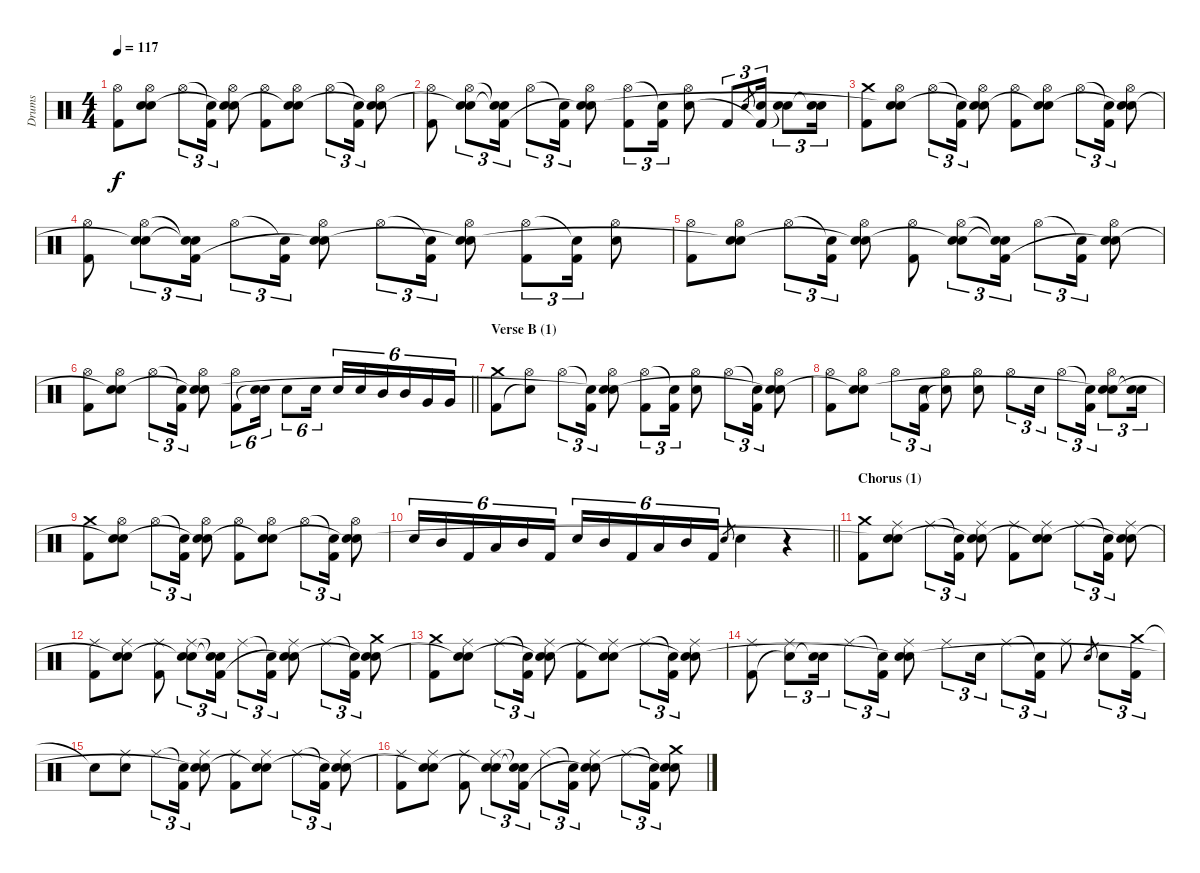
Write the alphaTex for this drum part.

\track ("Drums" "Drums") {instrument percussion}
\staff {score}
\articulation defaults
\ts (4 4)
\tempo 117
\clef neutral
\ks aminor
("Hi-Hat (open)" "Kick (hit) 2").8{dy f} ("Hi-Hat (open)" "Electric Snare (hit)" "Snare (hit)"{t}).8 "Hi-Hat (open)".8{tu (3 2)} ("Snare (hit)"{t} "Kick (hit) 2").16{tu (3 2)} ("Hi-Hat (open)" "Electric Snare (hit)" "Snare (hit)"{t}).8 ("Hi-Hat (open)" "Kick (hit) 2").8 ("Hi-Hat (open)" "Electric Snare (hit)" "Snare (hit)"{t}).8 "Hi-Hat (open)".8{tu (3 2)} ("Snare (hit)"{t} "Kick (hit) 2").16{tu (3 2)} ("Hi-Hat (open)" "Electric Snare (hit)" "Snare (hit)"{t}).8 |
("Hi-Hat (open)" "Kick (hit) 2").8 ("Hi-Hat (open)" "Electric Snare (hit)" "Snare (hit)"{t}).8{tu (3 2)} ("Snare (hit)"{t} "Snare (hit)"{t} "Kick (hit) 2").16{tu (3 2)} "Hi-Hat (open)".8{tu (3 2)} ("Snare (hit)"{t} "Kick (hit) 2").16{tu (3 2)} ("Hi-Hat (open)" "Electric Snare (hit)" "Snare (hit)"{t}).8 ("Hi-Hat (open)" "Kick (hit) 2").8{tu (3 2)} ("Snare (hit)"{t} "Kick (hit) 2").16{tu (3 2)} ("Hi-Hat (open)" "Electric Snare (hit)").8 "Kick (hit) 2".8{tu (3 2)} "Electric Snare (hit)".8{gr} ("Electric Snare (hit)" "Kick (hit) 2"{t}).16{tu (3 2)} ("Electric Snare (hit)" "Snare (hit)"{t}).8{tu (3 2)} ("Electric Snare (hit)" "Snare (hit)"{t}).16{tu (3 2)} |
("Crash medium (hit)" "Kick (hit) 2").8 ("Hi-Hat (open)" "Electric Snare (hit)" "Snare (hit)"{t}).8 "Hi-Hat (open)".8{tu (3 2)} ("Snare (hit)"{t} "Kick (hit) 2").16{tu (3 2)} ("Hi-Hat (open)" "Electric Snare (hit)" "Snare (hit)"{t}).8 ("Hi-Hat (open)" "Kick (hit) 2").8 ("Hi-Hat (open)" "Electric Snare (hit)" "Snare (hit)"{t}).8 "Hi-Hat (open)".8{tu (3 2)} ("Snare (hit)"{t} "Kick (hit) 2").16{tu (3 2)} ("Hi-Hat (open)" "Electric Snare (hit)" "Snare (hit)"{t}).8 |
("Hi-Hat (open)" "Kick (hit) 2").8 ("Hi-Hat (open)" "Electric Snare (hit)" "Snare (hit)"{t}).8{tu (3 2)} ("Snare (hit)"{t} "Snare (hit)"{t} "Kick (hit) 2").16{tu (3 2)} "Hi-Hat (open)".8{tu (3 2)} ("Snare (hit)"{t} "Kick (hit) 2").16{tu (3 2)} ("Hi-Hat (open)" "Electric Snare (hit)" "Snare (hit)"{t}).8 "Hi-Hat (open)".8{tu (3 2)} ("Snare (hit)"{t} "Kick (hit) 2").16{tu (3 2)} ("Hi-Hat (open)" "Electric Snare (hit)" "Snare (hit)"{t}).8 ("Hi-Hat (open)" "Kick (hit) 2").8{tu (3 2)} ("Snare (hit)"{t} "Kick (hit) 2").16{tu (3 2)} ("Hi-Hat (open)" "Electric Snare (hit)").8 |
("Hi-Hat (open)" "Kick (hit) 2").8 ("Hi-Hat (open)" "Electric Snare (hit)" "Snare (hit)"{t}).8 "Hi-Hat (open)".8{tu (3 2)} ("Snare (hit)"{t} "Kick (hit) 2").16{tu (3 2)} ("Hi-Hat (open)" "Electric Snare (hit)" "Snare (hit)"{t}).8 ("Hi-Hat (open)" "Kick (hit) 2").8 ("Hi-Hat (open)" "Electric Snare (hit)" "Snare (hit)"{t}).8{tu (3 2)} ("Snare (hit)"{t} "Snare (hit)"{t} "Kick (hit) 2").16{tu (3 2)} "Hi-Hat (open)".8{tu (3 2)} ("Snare (hit)"{t} "Kick (hit) 2").16{tu (3 2)} ("Hi-Hat (open)" "Electric Snare (hit)" "Snare (hit)"{t}).8 |
\barLineRight lightlight
("Hi-Hat (open)" "Kick (hit) 2").8 ("Hi-Hat (open)" "Electric Snare (hit)" "Snare (hit)"{t}).8 "Hi-Hat (open)".8{tu (3 2)} ("Snare (hit)"{t} "Kick (hit) 2").16{tu (3 2)} ("Hi-Hat (open)" "Electric Snare (hit)" "Snare (hit)"{t}).8 ("Hi-Hat (open)" "Kick (hit) 2").8{tu (6 4)} ("Electric Snare (hit)" "Snare (hit)"{t}).16{tu (6 4)} "Electric Snare (hit)".8{tu (6 4)} "Electric Snare (hit)".16{tu (6 4)} "Electric Snare (hit)".16{tu (6 4)} "Electric Snare (hit)".16{tu (6 4)} "Mid Tom (hit)".16{tu (6 4)} "Mid Tom (hit)".16{tu (6 4)} "Very Low Tom (hit)".16{tu (6 4)} "Very Low Tom (hit)".16{tu (6 4)} |
\section ("" "Verse B (1)")
("Crash medium (hit)" "Kick (hit) 2").8 ("Hi-Hat (open)" "Snare (hit)"{t}).8 "Hi-Hat (open)".8{tu (3 2)} ("Snare (hit)"{t} "Kick (hit) 2").16{tu (3 2)} ("Hi-Hat (open)" "Electric Snare (hit)" "Snare (hit)"{t}).8 ("Hi-Hat (open)" "Kick (hit) 2").8{tu (3 2)} ("Snare (hit)"{t} "Kick (hit) 2").16{tu (3 2)} ("Hi-Hat (open)" "Electric Snare (hit)").8 "Hi-Hat (open)".8{tu (3 2)} ("Snare (hit)"{t} "Kick (hit) 2").16{tu (3 2)} ("Hi-Hat (open)" "Electric Snare (hit)" "Snare (hit)"{t}).8 |
("Hi-Hat (open)" "Kick (hit) 2").8 ("Hi-Hat (open)" "Electric Snare (hit)" "Snare (hit)"{t}).8 "Hi-Hat (open)".8{tu (3 2)} ("Electric Snare (hit)" "Kick (hit) 2").16{tu (3 2)} ("Hi-Hat (open)" "Snare (hit)"{t}).8 ("Hi-Hat (open)" "Electric Snare (hit)").8 "Hi-Hat (open)".8{tu (3 2)} "Electric Snare (hit)".16{tu (3 2)} "Hi-Hat (open)".8{tu (3 2)} ("Snare (hit)"{t} "Kick (hit) 2").16{tu (3 2)} ("Hi-Hat (open)" "Electric Snare (hit)" "Snare (hit)"{t}).8{tu (3 2)} ("Electric Snare (hit)" "Snare (hit)"{t}).16{tu (3 2)} |
("Crash medium (hit)" "Kick (hit) 2").8 ("Hi-Hat (open)" "Electric Snare (hit)" "Snare (hit)"{t}).8 "Hi-Hat (open)".8{tu (3 2)} ("Snare (hit)"{t} "Kick (hit) 2").16{tu (3 2)} ("Hi-Hat (open)" "Electric Snare (hit)" "Snare (hit)"{t}).8 ("Hi-Hat (open)" "Kick (hit) 2").8 ("Hi-Hat (open)" "Electric Snare (hit)" "Snare (hit)"{t}).8 "Hi-Hat (open)".8{tu (3 2)} ("Snare (hit)"{t} "Kick (hit) 2").16{tu (3 2)} ("Hi-Hat (open)" "Electric Snare (hit)" "Snare (hit)"{t}).8 |
\barLineRight lightlight "Electric Snare (hit)".16{tu (6 4)} "Mid Tom (hit)".16{tu (6 4)} "Kick (hit) 2".16{tu (6 4)} "Low Floor Tom (hit)".16{tu (6 4)} "Mid Tom (hit)".16{tu (6 4)} "Kick (hit) 2".16{tu (6 4)} "Electric Snare (hit)".16{tu (6 4)} "Mid Tom (hit)".16{tu (6 4)} "Kick (hit) 2".16{tu (6 4)} "Low Floor Tom (hit)".16{tu (6 4)} "Mid Tom (hit)".16{tu (6 4)} "Kick (hit) 2".16{tu (6 4)} "Electric Snare (hit)".8{gr} "Electric Snare (hit)".4
r.4 |
\section ("" "Chorus (1)")
("Crash medium (hit)" "Kick (hit) 2").8 ("Ride (middle)" "Electric Snare (hit)" "Snare (hit)"{t}).8 "Ride (middle)".8{tu (3 2)} ("Snare (hit)"{t} "Kick (hit) 2").16{tu (3 2)} ("Ride (middle)" "Electric Snare (hit)" "Snare (hit)"{t}).8 ("Ride (middle)" "Kick (hit) 2").8 ("Ride (middle)" "Electric Snare (hit)" "Snare (hit)"{t}).8 "Ride (middle)".8{tu (3 2)} ("Snare (hit)"{t} "Kick (hit) 2").16{tu (3 2)} ("Ride (middle)" "Electric Snare (hit)" "Snare (hit)"{t}).8 |
("Ride (middle)" "Kick (hit) 2").8 ("Ride (middle)" "Electric Snare (hit)" "Snare (hit)"{t}).8 ("Ride (middle)" "Kick (hit) 2").8 ("Ride (middle)" "Electric Snare (hit)" "Snare (hit)"{t}).8{tu (3 2)} ("Snare (hit)"{t} "Snare (hit)"{t} "Kick (hit) 2").16{tu (3 2)} "Ride (middle)".8{tu (3 2)} ("Snare (hit)"{t} "Kick (hit) 2").16{tu (3 2)} ("Ride (middle)" "Electric Snare (hit)" "Snare (hit)"{t}).8 "Ride (middle)".8{tu (3 2)} ("Snare (hit)"{t} "Kick (hit) 2").16{tu (3 2)} ("Crash medium (hit)" "Electric Snare (hit)" "Snare (hit)"{t}).8 |
("Crash medium (hit)" "Kick (hit) 2").8 ("Ride (middle)" "Electric Snare (hit)" "Snare (hit)"{t}).8 "Ride (middle)".8{tu (3 2)} ("Snare (hit)"{t} "Kick (hit) 2").16{tu (3 2)} ("Ride (middle)" "Electric Snare (hit)" "Snare (hit)"{t}).8 ("Ride (middle)" "Kick (hit) 2").8 ("Ride (middle)" "Electric Snare (hit)" "Snare (hit)"{t}).8 "Ride (middle)".8{tu (3 2)} ("Snare (hit)"{t} "Kick (hit) 2").16{tu (3 2)} ("Ride (middle)" "Electric Snare (hit)" "Snare (hit)"{t}).8 |
("Ride (middle)" "Kick (hit) 2").8 ("Ride (middle)" "Snare (hit)"{t}).8{tu (3 2)} ("Electric Snare (hit)" "Snare (hit)"{t}).16{tu (3 2)} "Ride (middle)".8{tu (3 2)} ("Snare (hit)"{t} "Kick (hit) 2").16{tu (3 2)} ("Ride (middle)" "Electric Snare (hit)" "Snare (hit)"{t}).8 "Ride (middle)".8{tu (3 2)} "Electric Snare (hit)".16{tu (3 2)} "Ride (middle)".8{tu (3 2)} ("Snare (hit)"{t} "Kick (hit) 2").16{tu (3 2)} "Ride (middle)".8 "Electric Snare (hit)".8{gr} "Electric Snare (hit)".8{tu (3 2)} ("Crash medium (hit)" "Kick (hit) 2").16{tu (3 2)} |
"Snare (hit)"{t}.8 ("Ride (middle)" "Electric Snare (hit)").8 "Ride (middle)".8{tu (3 2)} ("Snare (hit)"{t} "Kick (hit) 2").16{tu (3 2)} ("Ride (middle)" "Electric Snare (hit)" "Snare (hit)"{t}).8 ("Ride (middle)" "Kick (hit) 2").8 ("Ride (middle)" "Electric Snare (hit)" "Snare (hit)"{t}).8 "Ride (middle)".8{tu (3 2)} ("Snare (hit)"{t} "Kick (hit) 2").16{tu (3 2)} ("Ride (middle)" "Electric Snare (hit)" "Snare (hit)"{t}).8 |
("Ride (middle)" "Kick (hit) 2").8 ("Ride (middle)" "Electric Snare (hit)" "Snare (hit)"{t}).8 ("Ride (middle)" "Kick (hit) 2").8 ("Ride (middle)" "Electric Snare (hit)" "Snare (hit)"{t}).8{tu (3 2)} ("Snare (hit)"{t} "Snare (hit)"{t} "Kick (hit) 2").16{tu (3 2)} "Ride (middle)".8{tu (3 2)} ("Snare (hit)"{t} "Kick (hit) 2").16{tu (3 2)} ("Ride (middle)" "Electric Snare (hit)" "Snare (hit)"{t}).8 "Ride (middle)".8{tu (3 2)} ("Snare (hit)"{t} "Kick (hit) 2").16{tu (3 2)} ("Crash medium (hit)" "Electric Snare (hit)" "Snare (hit)"{t}).8
